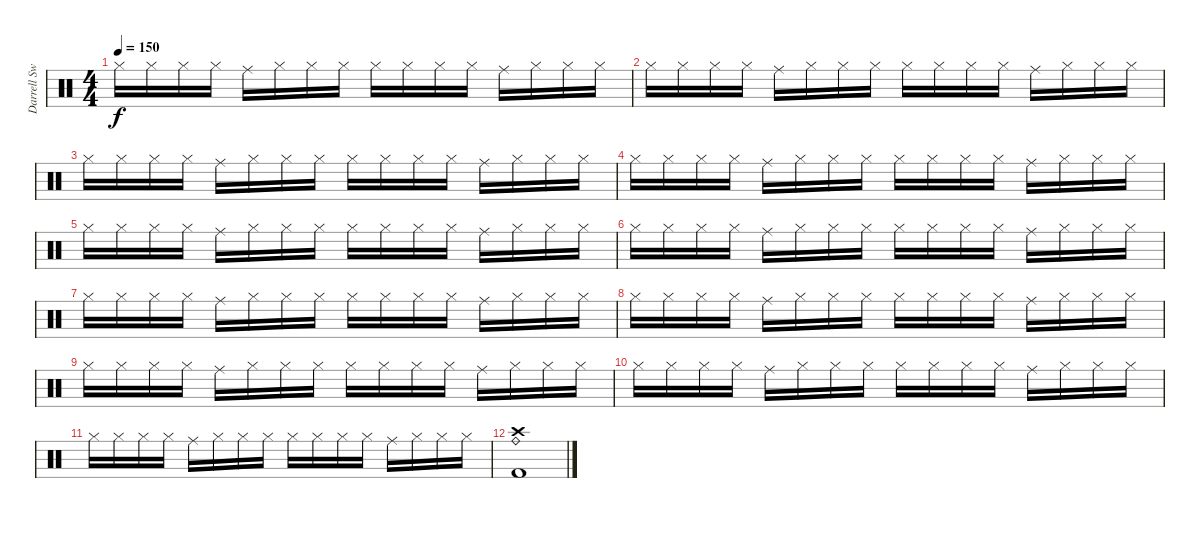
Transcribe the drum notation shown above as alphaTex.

\track ("Darrell Sweet (drums)" "Darrell Sw") {instrument percussion}
\staff {score}
\articulation defaults
\ts (4 4)
\tempo 150
\clef neutral
\ks c "Hi-Hat (closed)".16{dy f} "Hi-Hat (closed)".16 "Hi-Hat (closed)".16 "Hi-Hat (closed)".16 "Ride (middle)".16 "Hi-Hat (closed)".16 "Hi-Hat (closed)".16 "Hi-Hat (closed)".16 "Hi-Hat (closed)".16 "Hi-Hat (closed)".16 "Hi-Hat (closed)".16 "Hi-Hat (closed)".16 "Ride (middle)".16 "Hi-Hat (closed)".16 "Hi-Hat (closed)".16 "Hi-Hat (closed)".16
|
"Hi-Hat (closed)".16 "Hi-Hat (closed)".16 "Hi-Hat (closed)".16 "Hi-Hat (closed)".16 "Ride (middle)".16 "Hi-Hat (closed)".16 "Hi-Hat (closed)".16 "Hi-Hat (closed)".16 "Hi-Hat (closed)".16 "Hi-Hat (closed)".16 "Hi-Hat (closed)".16 "Hi-Hat (closed)".16 "Ride (middle)".16 "Hi-Hat (closed)".16 "Hi-Hat (closed)".16 "Hi-Hat (closed)".16 |
"Hi-Hat (closed)".16 "Hi-Hat (closed)".16 "Hi-Hat (closed)".16 "Hi-Hat (closed)".16 "Ride (middle)".16 "Hi-Hat (closed)".16 "Hi-Hat (closed)".16 "Hi-Hat (closed)".16 "Hi-Hat (closed)".16 "Hi-Hat (closed)".16 "Hi-Hat (closed)".16 "Hi-Hat (closed)".16 "Ride (middle)".16 "Hi-Hat (closed)".16 "Hi-Hat (closed)".16 "Hi-Hat (closed)".16 |
"Hi-Hat (closed)".16 "Hi-Hat (closed)".16 "Hi-Hat (closed)".16 "Hi-Hat (closed)".16 "Ride (middle)".16 "Hi-Hat (closed)".16 "Hi-Hat (closed)".16 "Hi-Hat (closed)".16 "Hi-Hat (closed)".16 "Hi-Hat (closed)".16 "Hi-Hat (closed)".16 "Hi-Hat (closed)".16 "Ride (middle)".16 "Hi-Hat (closed)".16 "Hi-Hat (closed)".16 "Hi-Hat (closed)".16 |
"Hi-Hat (closed)".16 "Hi-Hat (closed)".16 "Hi-Hat (closed)".16 "Hi-Hat (closed)".16 "Ride (middle)".16 "Hi-Hat (closed)".16 "Hi-Hat (closed)".16 "Hi-Hat (closed)".16 "Hi-Hat (closed)".16 "Hi-Hat (closed)".16 "Hi-Hat (closed)".16 "Hi-Hat (closed)".16 "Ride (middle)".16 "Hi-Hat (closed)".16 "Hi-Hat (closed)".16 "Hi-Hat (closed)".16 |
"Hi-Hat (closed)".16 "Hi-Hat (closed)".16 "Hi-Hat (closed)".16 "Hi-Hat (closed)".16 "Ride (middle)".16 "Hi-Hat (closed)".16 "Hi-Hat (closed)".16 "Hi-Hat (closed)".16 "Hi-Hat (closed)".16 "Hi-Hat (closed)".16 "Hi-Hat (closed)".16 "Hi-Hat (closed)".16 "Ride (middle)".16 "Hi-Hat (closed)".16 "Hi-Hat (closed)".16 "Hi-Hat (closed)".16 |
"Hi-Hat (closed)".16 "Hi-Hat (closed)".16 "Hi-Hat (closed)".16 "Hi-Hat (closed)".16 "Ride (middle)".16 "Hi-Hat (closed)".16 "Hi-Hat (closed)".16 "Hi-Hat (closed)".16 "Hi-Hat (closed)".16 "Hi-Hat (closed)".16 "Hi-Hat (closed)".16 "Hi-Hat (closed)".16 "Ride (middle)".16 "Hi-Hat (closed)".16 "Hi-Hat (closed)".16 "Hi-Hat (closed)".16 |
"Hi-Hat (closed)".16 "Hi-Hat (closed)".16 "Hi-Hat (closed)".16 "Hi-Hat (closed)".16 "Ride (middle)".16 "Hi-Hat (closed)".16 "Hi-Hat (closed)".16 "Hi-Hat (closed)".16 "Hi-Hat (closed)".16 "Hi-Hat (closed)".16 "Hi-Hat (closed)".16 "Hi-Hat (closed)".16 "Ride (middle)".16 "Hi-Hat (closed)".16 "Hi-Hat (closed)".16 "Hi-Hat (closed)".16 |
"Hi-Hat (closed)".16 "Hi-Hat (closed)".16 "Hi-Hat (closed)".16 "Hi-Hat (closed)".16 "Ride (middle)".16 "Hi-Hat (closed)".16 "Hi-Hat (closed)".16 "Hi-Hat (closed)".16 "Hi-Hat (closed)".16 "Hi-Hat (closed)".16 "Hi-Hat (closed)".16 "Hi-Hat (closed)".16 "Ride (middle)".16 "Hi-Hat (closed)".16 "Hi-Hat (closed)".16 "Hi-Hat (closed)".16 |
"Hi-Hat (closed)".16 "Hi-Hat (closed)".16 "Hi-Hat (closed)".16 "Hi-Hat (closed)".16 "Ride (middle)".16 "Hi-Hat (closed)".16 "Hi-Hat (closed)".16 "Hi-Hat (closed)".16 "Hi-Hat (closed)".16 "Hi-Hat (closed)".16 "Hi-Hat (closed)".16 "Hi-Hat (closed)".16 "Ride (middle)".16 "Hi-Hat (closed)".16 "Hi-Hat (closed)".16 "Hi-Hat (closed)".16 |
"Hi-Hat (closed)".16 "Hi-Hat (closed)".16 "Hi-Hat (closed)".16 "Hi-Hat (closed)".16 "Ride (middle)".16 "Hi-Hat (closed)".16 "Hi-Hat (closed)".16 "Hi-Hat (closed)".16 "Hi-Hat (closed)".16 "Hi-Hat (closed)".16 "Hi-Hat (closed)".16 "Hi-Hat (closed)".16 "Ride (middle)".16 "Hi-Hat (closed)".16 "Hi-Hat (closed)".16 "Hi-Hat (closed)".16 |
("Ride (bell)" "Crash high (hit)" "Kick (hit) 2").1
